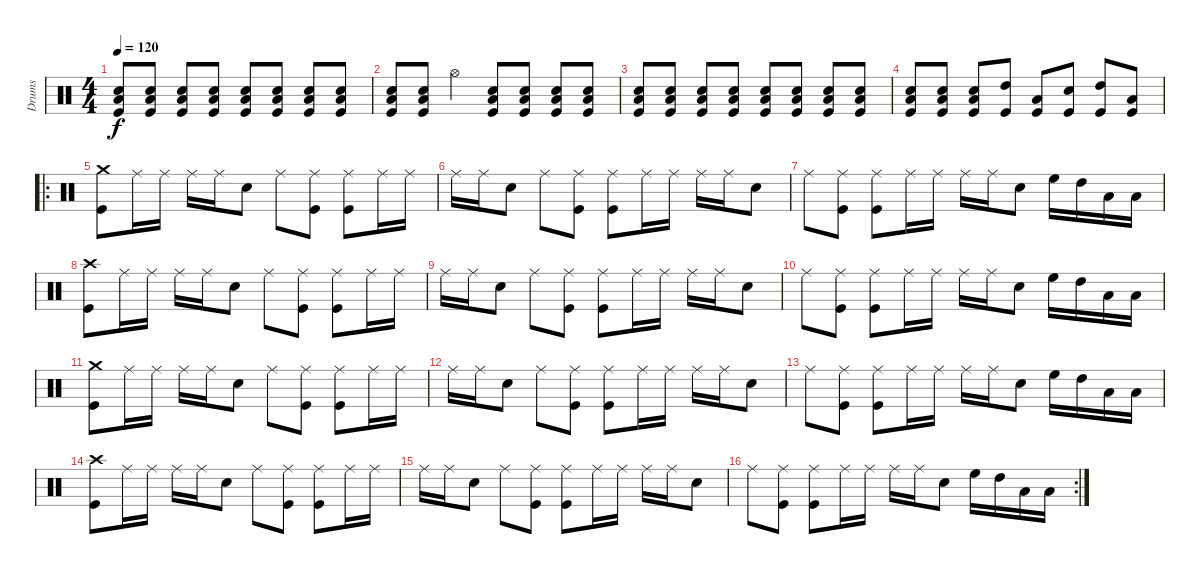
\track ("Drums" "Drums") {instrument percussion}
\staff {score}
\articulation defaults
\ts (4 4)
\tempo 120
\clef neutral
\ks c
("Electric Snare (hit)" "Low Floor Tom (hit)" "Kick (hit)").8{dy f volume 13} ("Electric Snare (hit)" "Low Floor Tom (hit)" "Kick (hit)").8 ("Electric Snare (hit)" "Low Floor Tom (hit)" "Kick (hit)").8 ("Electric Snare (hit)" "Low Floor Tom (hit)" "Kick (hit)").8 ("Electric Snare (hit)" "Low Floor Tom (hit)" "Kick (hit)").8 ("Electric Snare (hit)" "Low Floor Tom (hit)" "Kick (hit)").8 ("Electric Snare (hit)" "Low Floor Tom (hit)" "Kick (hit)").8 ("Electric Snare (hit)" "Low Floor Tom (hit)" "Kick (hit)").8 |
("Electric Snare (hit)" "Low Floor Tom (hit)" "Kick (hit)").8 ("Electric Snare (hit)" "Low Floor Tom (hit)" "Kick (hit)").8 "Hi-Hat (open)".4 ("Electric Snare (hit)" "Low Floor Tom (hit)" "Kick (hit)").8 ("Electric Snare (hit)" "Low Floor Tom (hit)" "Kick (hit)").8 ("Electric Snare (hit)" "Low Floor Tom (hit)" "Kick (hit)").8 ("Electric Snare (hit)" "Low Floor Tom (hit)" "Kick (hit)").8 |
("Electric Snare (hit)" "Low Floor Tom (hit)" "Kick (hit)").8 ("Electric Snare (hit)" "Low Floor Tom (hit)" "Kick (hit)").8 ("Electric Snare (hit)" "Low Floor Tom (hit)" "Kick (hit)").8 ("Electric Snare (hit)" "Low Floor Tom (hit)" "Kick (hit)").8 ("Electric Snare (hit)" "Low Floor Tom (hit)" "Kick (hit)").8 ("Electric Snare (hit)" "Low Floor Tom (hit)" "Kick (hit)").8 ("Electric Snare (hit)" "Low Floor Tom (hit)" "Kick (hit)").8 ("Electric Snare (hit)" "Low Floor Tom (hit)" "Kick (hit)").8 |
("Electric Snare (hit)" "Low Floor Tom (hit)" "Kick (hit)").8 ("Electric Snare (hit)" "Low Floor Tom (hit)" "Kick (hit)").8 ("Electric Snare (hit)" "Low Floor Tom (hit)" "Kick (hit)").8 ("High Tom (hit)" "Kick (hit)").8 ("Low Tom (hit)" "Kick (hit)").8 ("Electric Snare (hit)" "Kick (hit)").8 ("High Tom (hit)" "Kick (hit)").8 ("Low Tom (hit)" "Kick (hit)").8 |
\ro
("Crash medium (hit)" "Kick (hit)").8 "Ride (middle)".16 "Ride (middle)".16 "Ride (middle)".16 "Ride (middle)".16 "Electric Snare (hit)".8 "Ride (middle)".8 ("Ride (middle)" "Kick (hit)").8 ("Ride (middle)" "Kick (hit)").8 "Ride (middle)".16 "Ride (middle)".16 |
"Ride (middle)".16 "Ride (middle)".16 "Electric Snare (hit)".8 "Ride (middle)".8 ("Ride (middle)" "Kick (hit)").8 ("Ride (middle)" "Kick (hit)").8 "Ride (middle)".16 "Ride (middle)".16 "Ride (middle)".16 "Ride (middle)".16 "Electric Snare (hit)".8 |
"Ride (middle)".8 ("Ride (middle)" "Kick (hit)").8 ("Ride (middle)" "Kick (hit)").8 "Ride (middle)".16 "Ride (middle)".16 "Ride (middle)".16 "Ride (middle)".16 "Electric Snare (hit)".8 "High Floor Tom (hit)".16 "High Tom (hit)".16 "Low Tom (hit)".16 "Low Floor Tom (hit)".16 |
("Crash high (hit)" "Kick (hit)").8 "Ride (middle)".16 "Ride (middle)".16 "Ride (middle)".16 "Ride (middle)".16 "Electric Snare (hit)".8 "Ride (middle)".8 ("Ride (middle)" "Kick (hit)").8 ("Ride (middle)" "Kick (hit)").8 "Ride (middle)".16 "Ride (middle)".16 |
"Ride (middle)".16 "Ride (middle)".16 "Electric Snare (hit)".8 "Ride (middle)".8 ("Ride (middle)" "Kick (hit)").8 ("Ride (middle)" "Kick (hit)").8 "Ride (middle)".16 "Ride (middle)".16 "Ride (middle)".16 "Ride (middle)".16 "Electric Snare (hit)".8 |
"Ride (middle)".8 ("Ride (middle)" "Kick (hit)").8 ("Ride (middle)" "Kick (hit)").8 "Ride (middle)".16 "Ride (middle)".16 "Ride (middle)".16 "Ride (middle)".16 "Electric Snare (hit)".8 "High Floor Tom (hit)".16 "High Tom (hit)".16 "Low Tom (hit)".16 "Low Floor Tom (hit)".16 |
("Crash medium (hit)" "Kick (hit)").8 "Ride (middle)".16 "Ride (middle)".16 "Ride (middle)".16 "Ride (middle)".16 "Electric Snare (hit)".8 "Ride (middle)".8 ("Ride (middle)" "Kick (hit)").8 ("Ride (middle)" "Kick (hit)").8 "Ride (middle)".16 "Ride (middle)".16 |
"Ride (middle)".16 "Ride (middle)".16 "Electric Snare (hit)".8 "Ride (middle)".8 ("Ride (middle)" "Kick (hit)").8 ("Ride (middle)" "Kick (hit)").8 "Ride (middle)".16 "Ride (middle)".16 "Ride (middle)".16 "Ride (middle)".16 "Electric Snare (hit)".8 |
"Ride (middle)".8 ("Ride (middle)" "Kick (hit)").8 ("Ride (middle)" "Kick (hit)").8 "Ride (middle)".16 "Ride (middle)".16 "Ride (middle)".16 "Ride (middle)".16 "Electric Snare (hit)".8 "High Floor Tom (hit)".16 "High Tom (hit)".16 "Low Tom (hit)".16 "Low Floor Tom (hit)".16 |
("Crash high (hit)" "Kick (hit)").8 "Ride (middle)".16 "Ride (middle)".16 "Ride (middle)".16 "Ride (middle)".16 "Electric Snare (hit)".8 "Ride (middle)".8 ("Ride (middle)" "Kick (hit)").8 ("Ride (middle)" "Kick (hit)").8 "Ride (middle)".16 "Ride (middle)".16 |
"Ride (middle)".16 "Ride (middle)".16 "Electric Snare (hit)".8 "Ride (middle)".8 ("Ride (middle)" "Kick (hit)").8 ("Ride (middle)" "Kick (hit)").8 "Ride (middle)".16 "Ride (middle)".16 "Ride (middle)".16 "Ride (middle)".16 "Electric Snare (hit)".8 |
\rc 2 "Ride (middle)".8
("Ride (middle)" "Kick (hit)").8 ("Ride (middle)" "Kick (hit)").8 "Ride (middle)".16 "Ride (middle)".16 "Ride (middle)".16 "Ride (middle)".16 "Electric Snare (hit)".8 "High Floor Tom (hit)".16 "High Tom (hit)".16 "Low Tom (hit)".16 "Low Floor Tom (hit)".16
